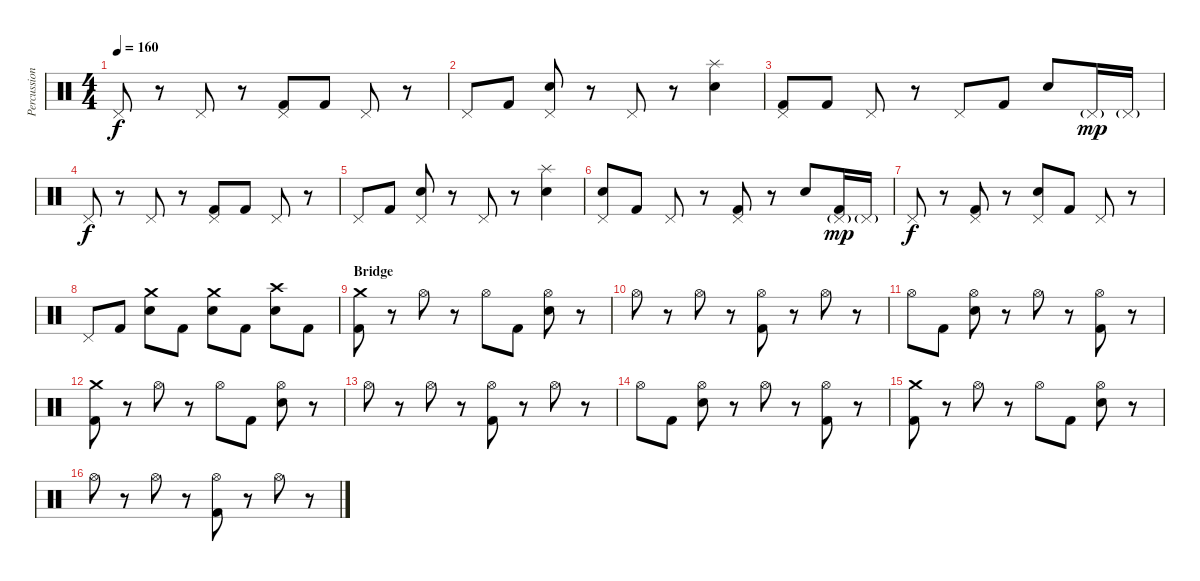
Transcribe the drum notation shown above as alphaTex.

\track ("Percussion" "Percussion") {instrument percussion}
\staff {score}
\articulation defaults
\ts (4 4)
\tempo 160
\clef neutral
\ks c "Pedal Hi-Hat (hit)".8{dy f}
r.8 "Pedal Hi-Hat (hit)".8 r.8 ("Pedal Hi-Hat (hit)" "Kick (hit) 2").8 "Kick (hit) 2".8 "Pedal Hi-Hat (hit)".8 r.8 |
"Pedal Hi-Hat (hit)".8 "Kick (hit) 2".8 ("Pedal Hi-Hat (hit)" "Electric Snare (hit)").8 r.8 "Pedal Hi-Hat (hit)".8 r.8 ("Splash (hit)" "Electric Snare (hit)").4 |
("Pedal Hi-Hat (hit)" "Kick (hit) 2").8 "Kick (hit) 2".8 "Pedal Hi-Hat (hit)".8 r.8 "Pedal Hi-Hat (hit)".8 "Kick (hit) 2".8 "Electric Snare (hit)".8 "Pedal Hi-Hat (hit)"{g}.16{dy mp} "Pedal Hi-Hat (hit)"{g}.16 |
"Pedal Hi-Hat (hit)".8{dy f} r.8 "Pedal Hi-Hat (hit)".8 r.8 ("Pedal Hi-Hat (hit)" "Kick (hit) 2").8 "Kick (hit) 2".8 "Pedal Hi-Hat (hit)".8 r.8 |
"Pedal Hi-Hat (hit)".8 "Kick (hit) 2".8 ("Pedal Hi-Hat (hit)" "Electric Snare (hit)").8 r.8 "Pedal Hi-Hat (hit)".8 r.8 ("Splash (hit)" "Electric Snare (hit)").4 |
("Pedal Hi-Hat (hit)" "Electric Snare (hit)").8 "Kick (hit) 2".8 "Pedal Hi-Hat (hit)".8 r.8 ("Pedal Hi-Hat (hit)" "Kick (hit) 2").8 r.8 "Electric Snare (hit)".8 ("Pedal Hi-Hat (hit)"{g} "Kick (hit) 2").16{dy mp} "Pedal Hi-Hat (hit)"{g}.16 |
"Pedal Hi-Hat (hit)".8{dy f} r.8 ("Pedal Hi-Hat (hit)" "Kick (hit) 2").8 r.8 ("Pedal Hi-Hat (hit)" "Electric Snare (hit)").8 "Kick (hit) 2".8 "Pedal Hi-Hat (hit)".8 r.8 |
"Pedal Hi-Hat (hit)".8 "Kick (hit) 2".8 ("Crash medium (hit)" "Electric Snare (hit)").8 "Kick (hit) 2".8 ("Crash medium (hit)" "Electric Snare (hit)").8 "Kick (hit) 2".8 ("Crash high (hit)" "Electric Snare (hit)").8 "Kick (hit) 2".8 |
\section ("" "Bridge")
("Crash medium (hit)" "Kick (hit) 2").8 r.8 "Hi-Hat (open)".8 r.8 "Hi-Hat (open)".8 "Kick (hit) 2".8 ("Hi-Hat (open)" "Electric Snare (hit)").8 r.8 |
"Hi-Hat (open)".8 r.8 "Hi-Hat (open)".8 r.8 ("Hi-Hat (open)" "Kick (hit) 2").8 r.8 "Hi-Hat (open)".8 r.8 |
"Hi-Hat (open)".8 "Kick (hit) 2".8 ("Hi-Hat (open)" "Electric Snare (hit)").8 r.8 "Hi-Hat (open)".8 r.8 ("Hi-Hat (open)" "Kick (hit) 2").8 r.8 |
("Crash medium (hit)" "Kick (hit) 2").8 r.8 "Hi-Hat (open)".8 r.8 "Hi-Hat (open)".8 "Kick (hit) 2".8 ("Hi-Hat (open)" "Electric Snare (hit)").8 r.8 |
"Hi-Hat (open)".8 r.8 "Hi-Hat (open)".8 r.8 ("Hi-Hat (open)" "Kick (hit) 2").8 r.8 "Hi-Hat (open)".8 r.8 |
"Hi-Hat (open)".8 "Kick (hit) 2".8 ("Hi-Hat (open)" "Electric Snare (hit)").8 r.8 "Hi-Hat (open)".8 r.8 ("Hi-Hat (open)" "Kick (hit) 2").8 r.8 |
("Crash medium (hit)" "Kick (hit) 2").8 r.8 "Hi-Hat (open)".8 r.8 "Hi-Hat (open)".8 "Kick (hit) 2".8 ("Hi-Hat (open)" "Electric Snare (hit)").8 r.8 |
"Hi-Hat (open)".8 r.8 "Hi-Hat (open)".8 r.8 ("Hi-Hat (open)" "Kick (hit) 2").8 r.8 "Hi-Hat (open)".8 r.8
